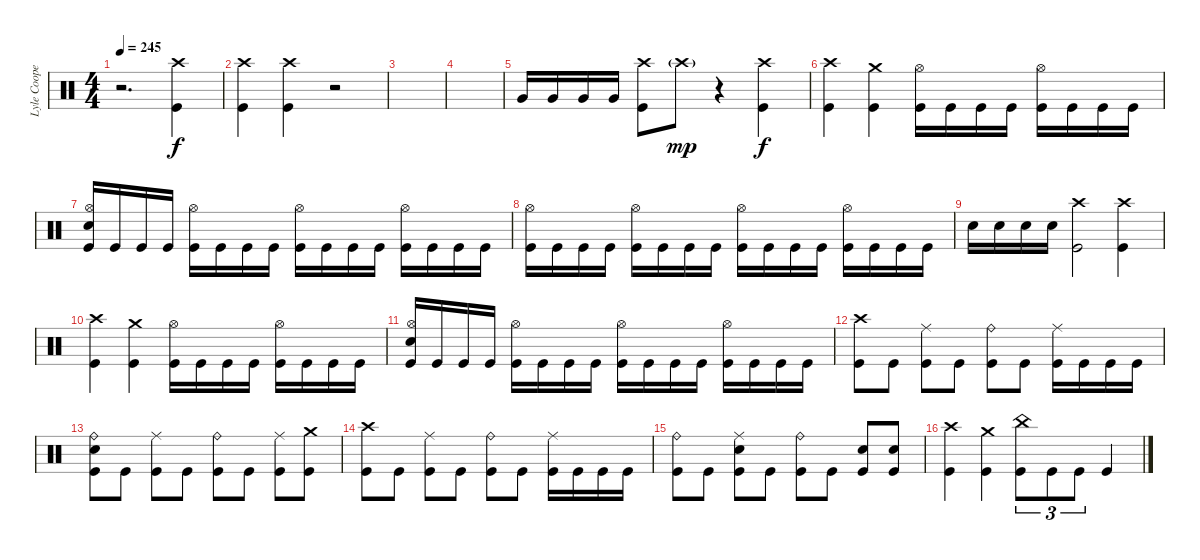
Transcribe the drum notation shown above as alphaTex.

\track ("Lyle Cooper" "Lyle Coope") {instrument percussion}
\staff {score}
\articulation defaults
\ts (4 4)
\tempo 245
\clef neutral
\ks c
r.2{d dy f} ("Crash high (hit)" "Kick (hit)").4 |
("Crash high (hit)" "Kick (hit)").4 ("Crash high (hit)" "Kick (hit)").4 r.2 |
|
|
"Very Low Tom (hit)".16 "Very Low Tom (hit)".16 "Very Low Tom (hit)".16 "Very Low Tom (hit)".16 ("Crash high (hit)" "Kick (hit)").8 "Crash high (hit)"{g}.8{dy mp} r.4 ("Crash high (hit)" "Kick (hit)").4{dy f} |
("Crash high (hit)" "Kick (hit)").4 ("Crash medium (hit)" "Kick (hit)").4 ("Hi-Hat (open)" "Kick (hit)").16 "Kick (hit)".16 "Kick (hit)".16 "Kick (hit)".16 ("Hi-Hat (open)" "Kick (hit)").16 "Kick (hit)".16 "Kick (hit)".16 "Kick (hit)".16 |
("Hi-Hat (open)" "Snare (hit) 2" "Kick (hit)").16 "Kick (hit)".16 "Kick (hit)".16 "Kick (hit)".16 ("Hi-Hat (open)" "Kick (hit)").16 "Kick (hit)".16 "Kick (hit)".16 "Kick (hit)".16 ("Hi-Hat (open)" "Kick (hit)").16 "Kick (hit)".16 "Kick (hit)".16 "Kick (hit)".16 ("Hi-Hat (open)" "Kick (hit)").16 "Kick (hit)".16 "Kick (hit)".16 "Kick (hit)".16 |
("Hi-Hat (open)" "Kick (hit)").16 "Kick (hit)".16 "Kick (hit)".16 "Kick (hit)".16 ("Hi-Hat (open)" "Kick (hit)").16 "Kick (hit)".16 "Kick (hit)".16 "Kick (hit)".16 ("Hi-Hat (open)" "Kick (hit)").16 "Kick (hit)".16 "Kick (hit)".16 "Kick (hit)".16 ("Hi-Hat (open)" "Kick (hit)").16 "Kick (hit)".16 "Kick (hit)".16 "Kick (hit)".16 |
"Snare (hit) 2".16 "Snare (hit) 2".16 "Snare (hit) 2".16 "Snare (hit) 2".16 ("Crash high (hit)" "Kick (hit)").2 ("Crash high (hit)" "Kick (hit)").4 |
("Crash high (hit)" "Kick (hit)").4 ("Crash medium (hit)" "Kick (hit)").4 ("Hi-Hat (open)" "Kick (hit)").16 "Kick (hit)".16 "Kick (hit)".16 "Kick (hit)".16 ("Hi-Hat (open)" "Kick (hit)").16 "Kick (hit)".16 "Kick (hit)".16 "Kick (hit)".16 |
("Hi-Hat (open)" "Snare (hit) 2" "Kick (hit)").16 "Kick (hit)".16 "Kick (hit)".16 "Kick (hit)".16 ("Hi-Hat (open)" "Kick (hit)").16 "Kick (hit)".16 "Kick (hit)".16 "Kick (hit)".16 ("Hi-Hat (open)" "Kick (hit)").16 "Kick (hit)".16 "Kick (hit)".16 "Kick (hit)".16 ("Hi-Hat (open)" "Kick (hit)").16 "Kick (hit)".16 "Kick (hit)".16 "Kick (hit)".16 |
("Crash high (hit)" "Kick (hit)").8 "Kick (hit)".8 ("Ride (middle)" "Kick (hit)").8 "Kick (hit)".8 ("Ride (bell)" "Kick (hit)").8 "Kick (hit)".8 ("Ride (middle)" "Kick (hit)").16 "Kick (hit)".16 "Kick (hit)".16 "Kick (hit)".16 |
("Ride (bell)" "Snare (hit) 2" "Kick (hit)").8 "Kick (hit)".8 ("Ride (middle)" "Kick (hit)").8 "Kick (hit)".8 ("Ride (bell)" "Kick (hit)").8 "Kick (hit)".8 ("Ride (middle)" "Kick (hit)").8 ("Crash medium (hit)" "Kick (hit)").8 |
("Crash high (hit)" "Kick (hit)").8 "Kick (hit)".8 ("Ride (middle)" "Kick (hit)").8 "Kick (hit)".8 ("Ride (bell)" "Kick (hit)").8 "Kick (hit)".8 ("Ride (middle)" "Kick (hit)").16 "Kick (hit)".16 "Kick (hit)".16 "Kick (hit)".16 |
("Ride (bell)" "Kick (hit)").8 "Kick (hit)".8 ("Ride (middle)" "Snare (hit) 2" "Kick (hit)").8 "Kick (hit)".8 ("Ride (bell)" "Kick (hit)").8 "Kick (hit)".8 ("Snare (hit) 2" "Kick (hit)").8 ("Snare (hit) 2" "Kick (hit)").8 |
("Crash high (hit)" "Kick (hit)").4 ("Crash medium (hit)" "Kick (hit)").4 ("China (hit)" "Kick (hit)").8{tu (3 2)} "Kick (hit)".8{tu (3 2)} "Kick (hit)".8{tu (3 2)} "Kick (hit)".4
